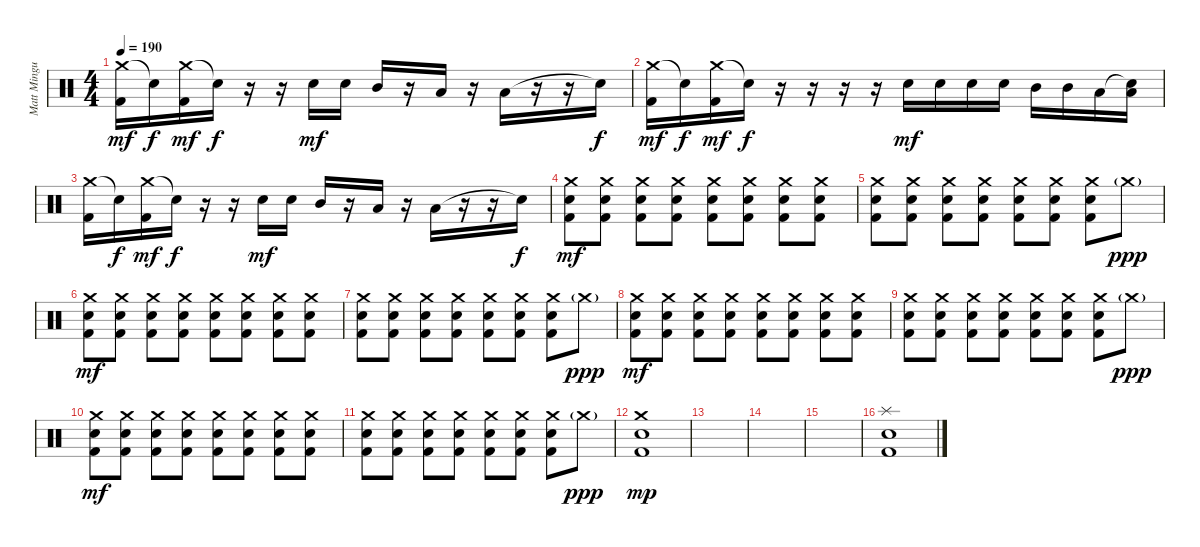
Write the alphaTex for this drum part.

\track ("Matt Mingus" "Matt Mingu") {instrument percussion}
\staff {score}
\articulation defaults
\ts (4 4)
\tempo 190
\clef neutral
\ks c
("Crash medium (hit)" "Kick (hit) 2").16{dy mf} "Snare (hit)"{t}.16{dy f} ("Crash medium (hit)" "Kick (hit) 2").16{dy mf} "Snare (hit)"{t}.16{dy f} r.16 r.16 "Electric Snare (hit)".16{dy mf} "Electric Snare (hit)".16 "Mid Tom (hit)".16 r.16 "Low Tom (hit)".16 r.16 "Low Tom (hit)".16 r.16 r.16 "Snare (hit)"{t}.16{dy f} |
("Crash medium (hit)" "Kick (hit) 2").16{dy mf} "Snare (hit)"{t}.16{dy f} ("Crash medium (hit)" "Kick (hit) 2").16{dy mf} "Snare (hit)"{t}.16{dy f} r.16 r.16 r.16 r.16 "Electric Snare (hit)".16{dy mf} "Electric Snare (hit)".16 "Electric Snare (hit)".16 "Electric Snare (hit)".16 "Mid Tom (hit)".16 "Mid Tom (hit)".16 "Low Tom (hit)".16 ("Snare (hit)"{t} "Low Tom (hit)").16 |
("Crash medium (hit)" "Kick (hit) 2").16 "Snare (hit)"{t}.16{dy f} ("Crash medium (hit)" "Kick (hit) 2").16{dy mf} "Snare (hit)"{t}.16{dy f} r.16 r.16 "Electric Snare (hit)".16{dy mf} "Electric Snare (hit)".16 "Mid Tom (hit)".16 r.16 "Low Tom (hit)".16 r.16 "Low Tom (hit)".16 r.16 r.16 "Snare (hit)"{t}.16{dy f} |
("Crash medium (hit)" "Electric Snare (hit)" "Kick (hit) 2").8{dy mf} ("Crash medium (hit)" "Electric Snare (hit)" "Kick (hit) 2").8 ("Crash medium (hit)" "Electric Snare (hit)" "Kick (hit) 2").8 ("Crash medium (hit)" "Electric Snare (hit)" "Kick (hit) 2").8 ("Crash medium (hit)" "Electric Snare (hit)" "Kick (hit) 2").8 ("Crash medium (hit)" "Electric Snare (hit)" "Kick (hit) 2").8 ("Crash medium (hit)" "Electric Snare (hit)" "Kick (hit) 2").8 ("Crash medium (hit)" "Electric Snare (hit)" "Kick (hit) 2").8 |
("Crash medium (hit)" "Electric Snare (hit)" "Kick (hit) 2").8 ("Crash medium (hit)" "Electric Snare (hit)" "Kick (hit) 2").8 ("Crash medium (hit)" "Electric Snare (hit)" "Kick (hit) 2").8 ("Crash medium (hit)" "Electric Snare (hit)" "Kick (hit) 2").8 ("Crash medium (hit)" "Electric Snare (hit)" "Kick (hit) 2").8 ("Crash medium (hit)" "Electric Snare (hit)" "Kick (hit) 2").8 ("Crash medium (hit)" "Electric Snare (hit)" "Kick (hit) 2").8 "Crash medium (hit)"{g}.8{dy ppp} |
("Crash medium (hit)" "Electric Snare (hit)" "Kick (hit) 2").8{dy mf} ("Crash medium (hit)" "Electric Snare (hit)" "Kick (hit) 2").8 ("Crash medium (hit)" "Electric Snare (hit)" "Kick (hit) 2").8 ("Crash medium (hit)" "Electric Snare (hit)" "Kick (hit) 2").8 ("Crash medium (hit)" "Electric Snare (hit)" "Kick (hit) 2").8 ("Crash medium (hit)" "Electric Snare (hit)" "Kick (hit) 2").8 ("Crash medium (hit)" "Electric Snare (hit)" "Kick (hit) 2").8 ("Crash medium (hit)" "Electric Snare (hit)" "Kick (hit) 2").8 |
("Crash medium (hit)" "Electric Snare (hit)" "Kick (hit) 2").8 ("Crash medium (hit)" "Electric Snare (hit)" "Kick (hit) 2").8 ("Crash medium (hit)" "Electric Snare (hit)" "Kick (hit) 2").8 ("Crash medium (hit)" "Electric Snare (hit)" "Kick (hit) 2").8 ("Crash medium (hit)" "Electric Snare (hit)" "Kick (hit) 2").8 ("Crash medium (hit)" "Electric Snare (hit)" "Kick (hit) 2").8 ("Crash medium (hit)" "Electric Snare (hit)" "Kick (hit) 2").8 "Crash medium (hit)"{g}.8{dy ppp} |
("Crash medium (hit)" "Electric Snare (hit)" "Kick (hit) 2").8{dy mf} ("Crash medium (hit)" "Electric Snare (hit)" "Kick (hit) 2").8 ("Crash medium (hit)" "Electric Snare (hit)" "Kick (hit) 2").8 ("Crash medium (hit)" "Electric Snare (hit)" "Kick (hit) 2").8 ("Crash medium (hit)" "Electric Snare (hit)" "Kick (hit) 2").8 ("Crash medium (hit)" "Electric Snare (hit)" "Kick (hit) 2").8 ("Crash medium (hit)" "Electric Snare (hit)" "Kick (hit) 2").8 ("Crash medium (hit)" "Electric Snare (hit)" "Kick (hit) 2").8 |
("Crash medium (hit)" "Electric Snare (hit)" "Kick (hit) 2").8 ("Crash medium (hit)" "Electric Snare (hit)" "Kick (hit) 2").8 ("Crash medium (hit)" "Electric Snare (hit)" "Kick (hit) 2").8 ("Crash medium (hit)" "Electric Snare (hit)" "Kick (hit) 2").8 ("Crash medium (hit)" "Electric Snare (hit)" "Kick (hit) 2").8 ("Crash medium (hit)" "Electric Snare (hit)" "Kick (hit) 2").8 ("Crash medium (hit)" "Electric Snare (hit)" "Kick (hit) 2").8 "Crash medium (hit)"{g}.8{dy ppp} |
("Crash medium (hit)" "Electric Snare (hit)" "Kick (hit) 2").8{dy mf} ("Crash medium (hit)" "Electric Snare (hit)" "Kick (hit) 2").8 ("Crash medium (hit)" "Electric Snare (hit)" "Kick (hit) 2").8 ("Crash medium (hit)" "Electric Snare (hit)" "Kick (hit) 2").8 ("Crash medium (hit)" "Electric Snare (hit)" "Kick (hit) 2").8 ("Crash medium (hit)" "Electric Snare (hit)" "Kick (hit) 2").8 ("Crash medium (hit)" "Electric Snare (hit)" "Kick (hit) 2").8 ("Crash medium (hit)" "Electric Snare (hit)" "Kick (hit) 2").8 |
("Crash medium (hit)" "Electric Snare (hit)" "Kick (hit) 2").8 ("Crash medium (hit)" "Electric Snare (hit)" "Kick (hit) 2").8 ("Crash medium (hit)" "Electric Snare (hit)" "Kick (hit) 2").8 ("Crash medium (hit)" "Electric Snare (hit)" "Kick (hit) 2").8 ("Crash medium (hit)" "Electric Snare (hit)" "Kick (hit) 2").8 ("Crash medium (hit)" "Electric Snare (hit)" "Kick (hit) 2").8 ("Crash medium (hit)" "Electric Snare (hit)" "Kick (hit) 2").8 "Crash medium (hit)"{g}.8{dy ppp} |
("Crash medium (hit)" "Electric Snare (hit)" "Kick (hit) 2").1{dy mp} |
|
|
|
("Splash (hit)" "Electric Snare (hit)" "Kick (hit) 2").1
